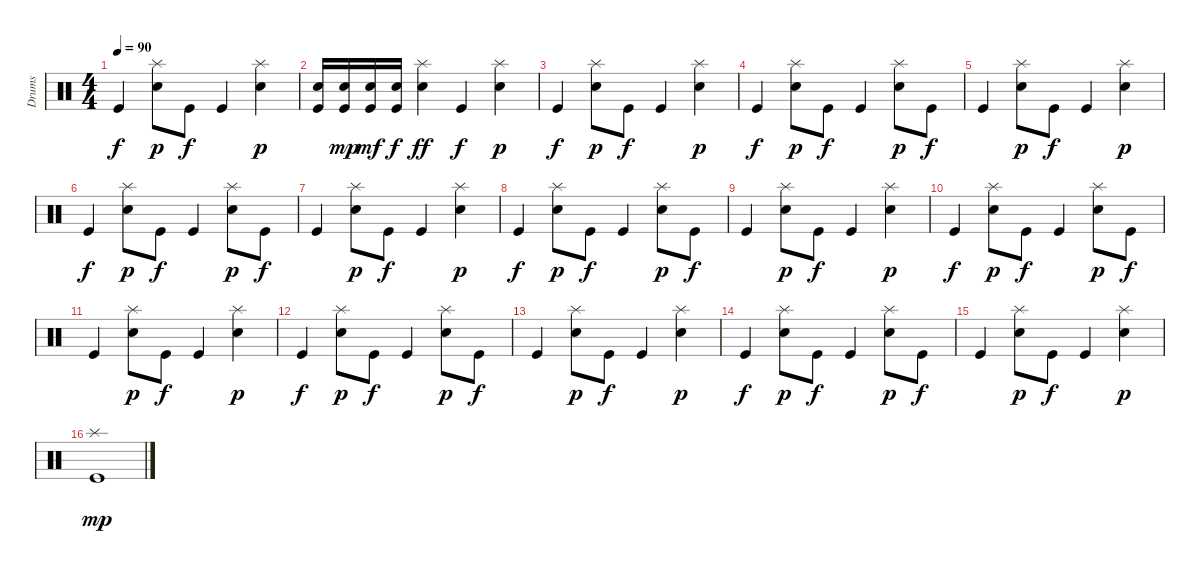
\track ("Drums" "Drums") {instrument percussion}
\staff {score}
\articulation defaults
\ts (4 4)
\tempo 90
\clef neutral
\ks c "Kick (hit)".4{dy f}
("Splash (hit)" "Snare (hit) 2").8{dy p} "Kick (hit)".8{dy f} "Kick (hit)".4 ("Splash (hit)" "Snare (hit) 2").4{dy p} |
("Snare (hit) 2" "Kick (hit)").16 ("Snare (hit) 2" "Kick (hit)").16{dy mp} ("Snare (hit) 2" "Kick (hit)").16{dy mf} ("Snare (hit) 2" "Kick (hit)").16{dy f} ("Splash (hit)" "Snare (hit) 2").4{dy ff} "Kick (hit)".4{dy f} ("Splash (hit)" "Snare (hit) 2").4{dy p} |
"Kick (hit)".4{dy f} ("Splash (hit)" "Snare (hit) 2").8{dy p} "Kick (hit)".8{dy f} "Kick (hit)".4 ("Splash (hit)" "Snare (hit) 2").4{dy p} |
"Kick (hit)".4{dy f} ("Splash (hit)" "Snare (hit) 2").8{dy p} "Kick (hit)".8{dy f} "Kick (hit)".4 ("Splash (hit)" "Snare (hit) 2").8{dy p} "Kick (hit)".8{dy f} |
"Kick (hit)".4 ("Splash (hit)" "Snare (hit) 2").8{dy p} "Kick (hit)".8{dy f} "Kick (hit)".4 ("Splash (hit)" "Snare (hit) 2").4{dy p} |
"Kick (hit)".4{dy f} ("Splash (hit)" "Snare (hit) 2").8{dy p} "Kick (hit)".8{dy f} "Kick (hit)".4 ("Splash (hit)" "Snare (hit) 2").8{dy p} "Kick (hit)".8{dy f} |
"Kick (hit)".4 ("Splash (hit)" "Snare (hit) 2").8{dy p} "Kick (hit)".8{dy f} "Kick (hit)".4 ("Splash (hit)" "Snare (hit) 2").4{dy p} |
"Kick (hit)".4{dy f} ("Splash (hit)" "Snare (hit) 2").8{dy p} "Kick (hit)".8{dy f} "Kick (hit)".4 ("Splash (hit)" "Snare (hit) 2").8{dy p} "Kick (hit)".8{dy f} |
"Kick (hit)".4 ("Splash (hit)" "Snare (hit) 2").8{dy p} "Kick (hit)".8{dy f} "Kick (hit)".4 ("Splash (hit)" "Snare (hit) 2").4{dy p} |
"Kick (hit)".4{dy f} ("Splash (hit)" "Snare (hit) 2").8{dy p} "Kick (hit)".8{dy f} "Kick (hit)".4 ("Splash (hit)" "Snare (hit) 2").8{dy p} "Kick (hit)".8{dy f} |
"Kick (hit)".4 ("Splash (hit)" "Snare (hit) 2").8{dy p} "Kick (hit)".8{dy f} "Kick (hit)".4 ("Splash (hit)" "Snare (hit) 2").4{dy p} |
"Kick (hit)".4{dy f} ("Splash (hit)" "Snare (hit) 2").8{dy p} "Kick (hit)".8{dy f} "Kick (hit)".4 ("Splash (hit)" "Snare (hit) 2").8{dy p} "Kick (hit)".8{dy f} |
"Kick (hit)".4 ("Splash (hit)" "Snare (hit) 2").8{dy p} "Kick (hit)".8{dy f} "Kick (hit)".4 ("Splash (hit)" "Snare (hit) 2").4{dy p} |
"Kick (hit)".4{dy f} ("Splash (hit)" "Snare (hit) 2").8{dy p} "Kick (hit)".8{dy f} "Kick (hit)".4 ("Splash (hit)" "Snare (hit) 2").8{dy p} "Kick (hit)".8{dy f} |
"Kick (hit)".4 ("Splash (hit)" "Snare (hit) 2").8{dy p} "Kick (hit)".8{dy f} "Kick (hit)".4 ("Splash (hit)" "Snare (hit) 2").4{dy p} |
("Splash (hit)" "Kick (hit)").1{dy mp}
